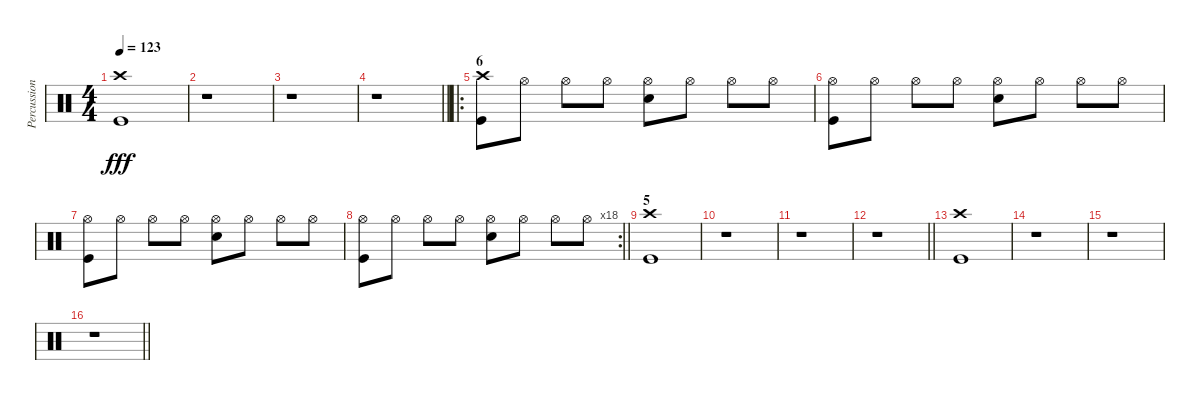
\track ("Percussion" "Percussion") {instrument percussion}
\staff {score}
\articulation defaults
\ts (4 4)
\section ("" "")
\tempo 123
\clef neutral
\ks c
("Crash high (hit)" "Kick (hit)").1{dy fff} |
r.1 |
r.1 |
\barLineRight lightlight
r.1 |
\ro
\section ("" "6")
("Crash high (hit)" "Kick (hit)").8 "Hi-Hat (open)".8 "Hi-Hat (open)".8 "Hi-Hat (open)".8 ("Hi-Hat (open)" "Snare (hit) 2").8 "Hi-Hat (open)".8 "Hi-Hat (open)".8 "Hi-Hat (open)".8 |
("Hi-Hat (open)" "Kick (hit)").8 "Hi-Hat (open)".8 "Hi-Hat (open)".8 "Hi-Hat (open)".8 ("Hi-Hat (open)" "Snare (hit) 2").8 "Hi-Hat (open)".8 "Hi-Hat (open)".8 "Hi-Hat (open)".8 |
("Hi-Hat (open)" "Kick (hit)").8 "Hi-Hat (open)".8 "Hi-Hat (open)".8 "Hi-Hat (open)".8 ("Hi-Hat (open)" "Snare (hit) 2").8 "Hi-Hat (open)".8 "Hi-Hat (open)".8 "Hi-Hat (open)".8 |
\rc 18
\barLineRight lightlight
("Hi-Hat (open)" "Kick (hit)").8 "Hi-Hat (open)".8 "Hi-Hat (open)".8 "Hi-Hat (open)".8 ("Hi-Hat (open)" "Snare (hit) 2").8 "Hi-Hat (open)".8 "Hi-Hat (open)".8 "Hi-Hat (open)".8 |
\section ("" "5")
("Crash high (hit)" "Kick (hit)").1 |
r.1 |
r.1 |
\barLineRight lightlight
r.1 |
\section ("" "")
("Crash high (hit)" "Kick (hit)").1 |
r.1 |
r.1 |
\barLineRight lightlight
r.1
